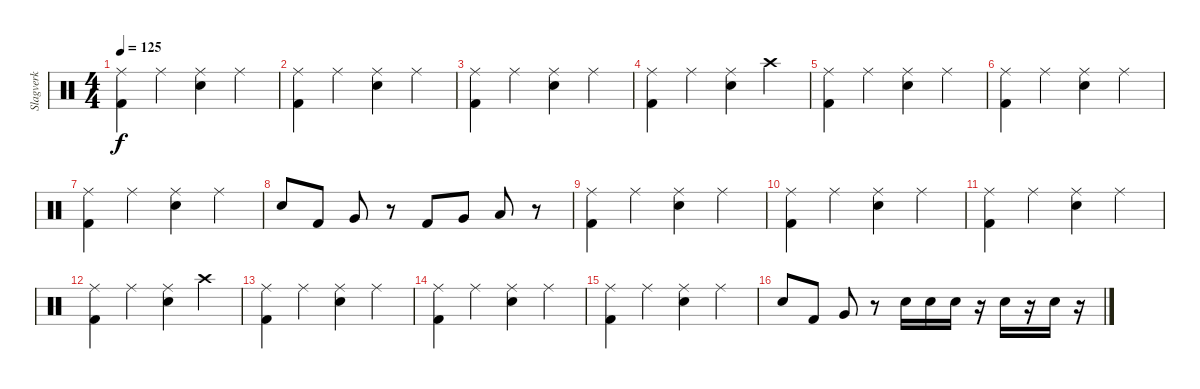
\track ("Slagverk" "Slagverk") {instrument percussion}
\staff {score}
\articulation defaults
\ts (4 4)
\tempo 125
\clef neutral
\ks c
("Ride (middle)" "Kick (hit) 2").4{dy f} "Ride (middle)".4 ("Ride (middle)" "Electric Snare (hit)").4 "Ride (middle)".4 |
("Ride (middle)" "Kick (hit) 2").4 "Ride (middle)".4 ("Ride (middle)" "Electric Snare (hit)").4 "Ride (middle)".4 |
("Ride (middle)" "Kick (hit) 2").4 "Ride (middle)".4 ("Ride (middle)" "Electric Snare (hit)").4 "Ride (middle)".4 |
("Ride (middle)" "Kick (hit) 2").4 "Ride (middle)".4 ("Ride (middle)" "Electric Snare (hit)").4 "Crash high (hit)".4 |
("Ride (middle)" "Kick (hit) 2").4 "Ride (middle)".4 ("Ride (middle)" "Electric Snare (hit)").4 "Ride (middle)".4 |
("Ride (middle)" "Kick (hit) 2").4 "Ride (middle)".4 ("Ride (middle)" "Electric Snare (hit)").4 "Ride (middle)".4 |
("Ride (middle)" "Kick (hit) 2").4 "Ride (middle)".4 ("Ride (middle)" "Electric Snare (hit)").4 "Ride (middle)".4 |
"Electric Snare (hit)".8 "Kick (hit) 2".8 "Very Low Tom (hit)".8 r.8 "Kick (hit) 2".8 "Very Low Tom (hit)".8 "Low Tom (hit)".8 r.8 |
("Ride (middle)" "Kick (hit) 2").4 "Ride (middle)".4 ("Ride (middle)" "Electric Snare (hit)").4 "Ride (middle)".4 |
("Ride (middle)" "Kick (hit) 2").4 "Ride (middle)".4 ("Ride (middle)" "Electric Snare (hit)").4 "Ride (middle)".4 |
("Ride (middle)" "Kick (hit) 2").4 "Ride (middle)".4 ("Ride (middle)" "Electric Snare (hit)").4 "Ride (middle)".4 |
("Ride (middle)" "Kick (hit) 2").4 "Ride (middle)".4 ("Ride (middle)" "Electric Snare (hit)").4 "Crash high (hit)".4 |
("Ride (middle)" "Kick (hit) 2").4 "Ride (middle)".4 ("Ride (middle)" "Electric Snare (hit)").4 "Ride (middle)".4 |
("Ride (middle)" "Kick (hit) 2").4 "Ride (middle)".4 ("Ride (middle)" "Electric Snare (hit)").4 "Ride (middle)".4 |
("Ride (middle)" "Kick (hit) 2").4 "Ride (middle)".4 ("Ride (middle)" "Electric Snare (hit)").4 "Ride (middle)".4 |
"Electric Snare (hit)".8 "Kick (hit) 2".8 "Very Low Tom (hit)".8 r.8 "Electric Snare (hit)".16 "Electric Snare (hit)".16 "Electric Snare (hit)".16 r.16 "Electric Snare (hit)".16 r.16 "Electric Snare (hit)".16 r.16
